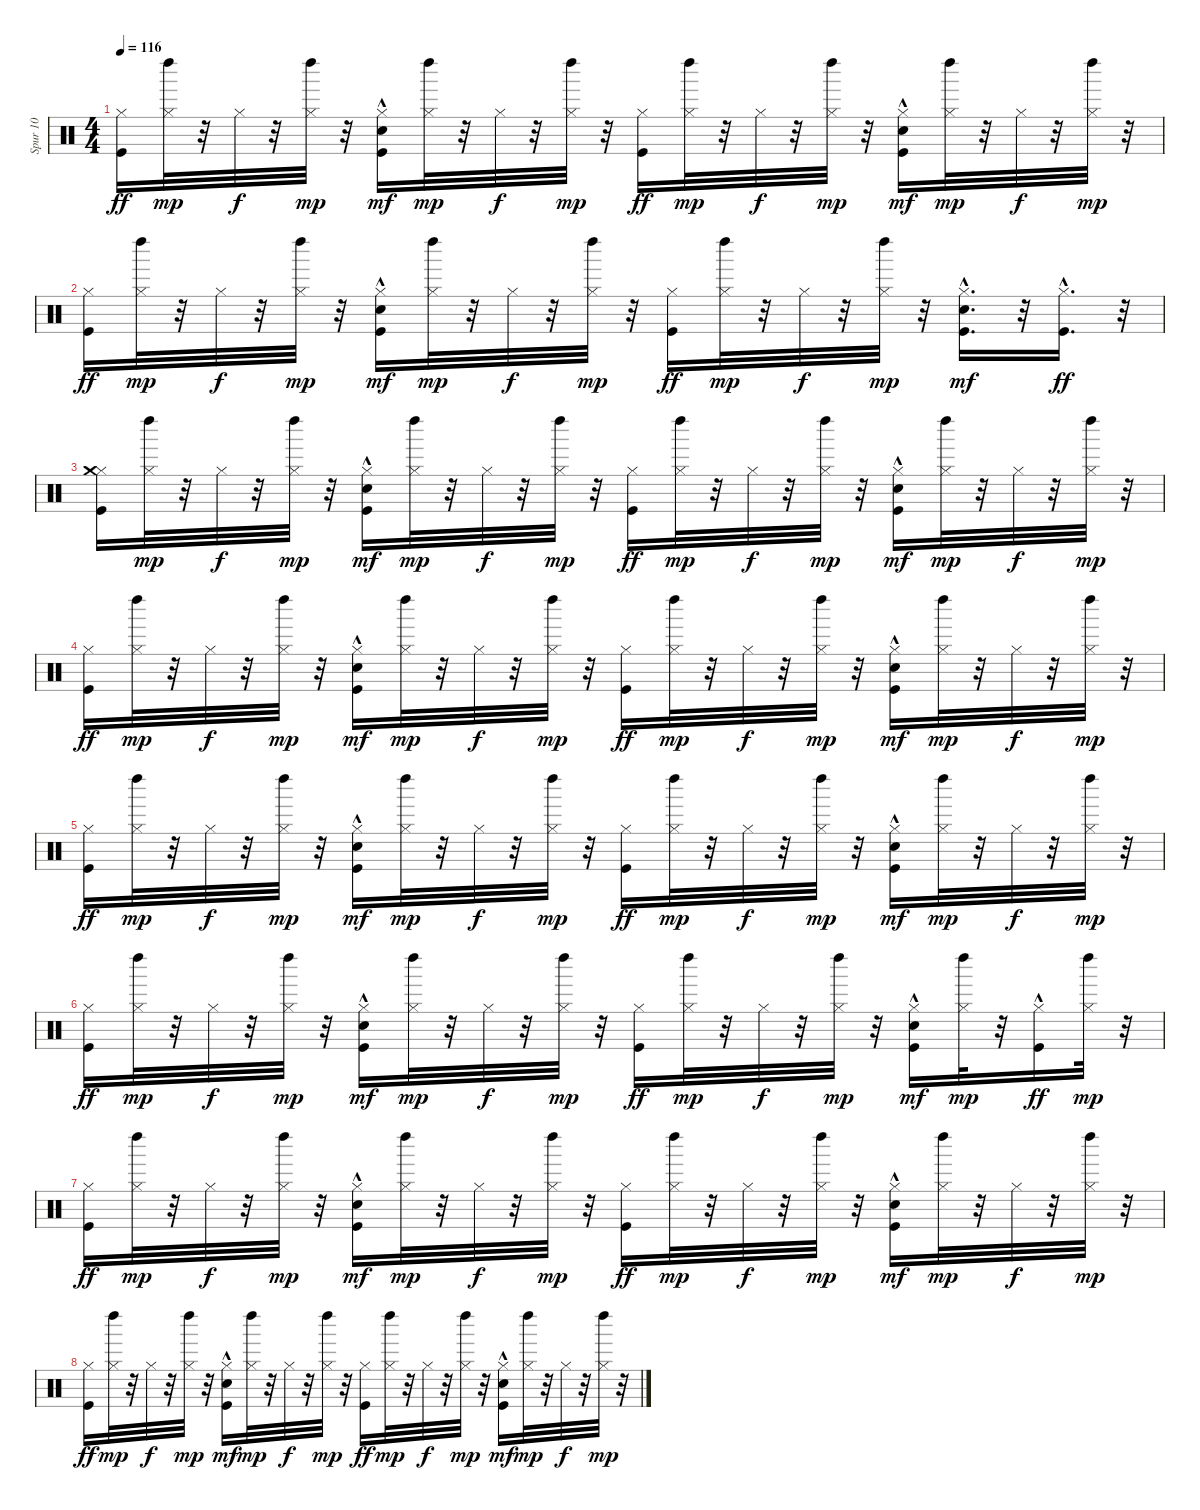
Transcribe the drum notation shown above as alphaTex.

\track ("Spur 10" "Spur 10") {instrument percussion}
\staff {score}
\articulation defaults
\ts (4 4)
\tempo 116
\clef neutral
\ks c
("Kick (hit)" "Hi-Hat (closed)").16{dy ff} ("Left Maraca (hit)" "Hi-Hat (closed)").32{dy mp} r.32 "Hi-Hat (closed)".32{dy f} r.32 ("Left Maraca (hit)" "Hi-Hat (closed)").32{dy mp} r.32 ("Kick (hit)"{hac} "Snare (hit) 2"{hac} "Hi-Hat (closed)").16{dy mf} ("Left Maraca (hit)" "Hi-Hat (closed)").32{dy mp} r.32 "Hi-Hat (closed)".32{dy f} r.32 ("Left Maraca (hit)" "Hi-Hat (closed)").32{dy mp} r.32 ("Kick (hit)" "Hi-Hat (closed)").16{dy ff} ("Left Maraca (hit)" "Hi-Hat (closed)").32{dy mp} r.32 "Hi-Hat (closed)".32{dy f} r.32 ("Left Maraca (hit)" "Hi-Hat (closed)").32{dy mp} r.32 ("Kick (hit)"{hac} "Snare (hit) 2"{hac} "Hi-Hat (closed)").16{dy mf} ("Left Maraca (hit)" "Hi-Hat (closed)").32{dy mp} r.32 "Hi-Hat (closed)".32{dy f} r.32 ("Left Maraca (hit)" "Hi-Hat (closed)").32{dy mp} r.32 |
("Kick (hit)" "Hi-Hat (closed)").16{dy ff} ("Left Maraca (hit)" "Hi-Hat (closed)").32{dy mp} r.32 "Hi-Hat (closed)".32{dy f} r.32 ("Left Maraca (hit)" "Hi-Hat (closed)").32{dy mp} r.32 ("Kick (hit)"{hac} "Snare (hit) 2"{hac} "Hi-Hat (closed)").16{dy mf} ("Left Maraca (hit)" "Hi-Hat (closed)").32{dy mp} r.32 "Hi-Hat (closed)".32{dy f} r.32 ("Left Maraca (hit)" "Hi-Hat (closed)").32{dy mp} r.32 ("Kick (hit)" "Hi-Hat (closed)").16{dy ff} ("Left Maraca (hit)" "Hi-Hat (closed)").32{dy mp} r.32 "Hi-Hat (closed)".32{dy f} r.32 ("Left Maraca (hit)" "Hi-Hat (closed)").32{dy mp} r.32 ("Kick (hit)"{hac} "Snare (hit) 2"{hac} "Hi-Hat (closed)").16{d dy mf} r.32 ("Kick (hit)"{hac} "Hi-Hat (closed)").16{d dy ff} r.32 |
("Kick (hit)" "Hi-Hat (closed)" "Crash medium (hit)").16 ("Left Maraca (hit)" "Hi-Hat (closed)").32{dy mp} r.32 "Hi-Hat (closed)".32{dy f} r.32 ("Left Maraca (hit)" "Hi-Hat (closed)").32{dy mp} r.32 ("Kick (hit)"{hac} "Snare (hit) 2"{hac} "Hi-Hat (closed)").16{dy mf} ("Left Maraca (hit)" "Hi-Hat (closed)").32{dy mp} r.32 "Hi-Hat (closed)".32{dy f} r.32 ("Left Maraca (hit)" "Hi-Hat (closed)").32{dy mp} r.32 ("Kick (hit)" "Hi-Hat (closed)").16{dy ff} ("Left Maraca (hit)" "Hi-Hat (closed)").32{dy mp} r.32 "Hi-Hat (closed)".32{dy f} r.32 ("Left Maraca (hit)" "Hi-Hat (closed)").32{dy mp} r.32 ("Kick (hit)"{hac} "Snare (hit) 2"{hac} "Hi-Hat (closed)").16{dy mf} ("Left Maraca (hit)" "Hi-Hat (closed)").32{dy mp} r.32 "Hi-Hat (closed)".32{dy f} r.32 ("Left Maraca (hit)" "Hi-Hat (closed)").32{dy mp} r.32 |
("Kick (hit)" "Hi-Hat (closed)").16{dy ff} ("Left Maraca (hit)" "Hi-Hat (closed)").32{dy mp} r.32 "Hi-Hat (closed)".32{dy f} r.32 ("Left Maraca (hit)" "Hi-Hat (closed)").32{dy mp} r.32 ("Kick (hit)"{hac} "Snare (hit) 2"{hac} "Hi-Hat (closed)").16{dy mf} ("Left Maraca (hit)" "Hi-Hat (closed)").32{dy mp} r.32 "Hi-Hat (closed)".32{dy f} r.32 ("Left Maraca (hit)" "Hi-Hat (closed)").32{dy mp} r.32 ("Kick (hit)" "Hi-Hat (closed)").16{dy ff} ("Left Maraca (hit)" "Hi-Hat (closed)").32{dy mp} r.32 "Hi-Hat (closed)".32{dy f} r.32 ("Left Maraca (hit)" "Hi-Hat (closed)").32{dy mp} r.32 ("Kick (hit)"{hac} "Snare (hit) 2"{hac} "Hi-Hat (closed)").16{dy mf} ("Left Maraca (hit)" "Hi-Hat (closed)").32{dy mp} r.32 "Hi-Hat (closed)".32{dy f} r.32 ("Left Maraca (hit)" "Hi-Hat (closed)").32{dy mp} r.32 |
("Kick (hit)" "Hi-Hat (closed)").16{dy ff} ("Left Maraca (hit)" "Hi-Hat (closed)").32{dy mp} r.32 "Hi-Hat (closed)".32{dy f} r.32 ("Left Maraca (hit)" "Hi-Hat (closed)").32{dy mp} r.32 ("Kick (hit)"{hac} "Snare (hit) 2"{hac} "Hi-Hat (closed)").16{dy mf} ("Left Maraca (hit)" "Hi-Hat (closed)").32{dy mp} r.32 "Hi-Hat (closed)".32{dy f} r.32 ("Left Maraca (hit)" "Hi-Hat (closed)").32{dy mp} r.32 ("Kick (hit)" "Hi-Hat (closed)").16{dy ff} ("Left Maraca (hit)" "Hi-Hat (closed)").32{dy mp} r.32 "Hi-Hat (closed)".32{dy f} r.32 ("Left Maraca (hit)" "Hi-Hat (closed)").32{dy mp} r.32 ("Kick (hit)"{hac} "Snare (hit) 2"{hac} "Hi-Hat (closed)").16{dy mf} ("Left Maraca (hit)" "Hi-Hat (closed)").32{dy mp} r.32 "Hi-Hat (closed)".32{dy f} r.32 ("Left Maraca (hit)" "Hi-Hat (closed)").32{dy mp} r.32 |
("Kick (hit)" "Hi-Hat (closed)").16{dy ff} ("Left Maraca (hit)" "Hi-Hat (closed)").32{dy mp} r.32 "Hi-Hat (closed)".32{dy f} r.32 ("Left Maraca (hit)" "Hi-Hat (closed)").32{dy mp} r.32 ("Kick (hit)"{hac} "Snare (hit) 2"{hac} "Hi-Hat (closed)").16{dy mf} ("Left Maraca (hit)" "Hi-Hat (closed)").32{dy mp} r.32 "Hi-Hat (closed)".32{dy f} r.32 ("Left Maraca (hit)" "Hi-Hat (closed)").32{dy mp} r.32 ("Kick (hit)" "Hi-Hat (closed)").16{dy ff} ("Left Maraca (hit)" "Hi-Hat (closed)").32{dy mp} r.32 "Hi-Hat (closed)".32{dy f} r.32 ("Left Maraca (hit)" "Hi-Hat (closed)").32{dy mp} r.32 ("Kick (hit)"{hac} "Snare (hit) 2"{hac} "Hi-Hat (closed)").16{dy mf} ("Left Maraca (hit)" "Hi-Hat (closed)").32{dy mp} r.32 ("Kick (hit)"{hac} "Hi-Hat (closed)").16{dy ff} ("Left Maraca (hit)" "Hi-Hat (closed)").32{dy mp} r.32 |
("Kick (hit)" "Hi-Hat (closed)").16{dy ff} ("Left Maraca (hit)" "Hi-Hat (closed)").32{dy mp} r.32 "Hi-Hat (closed)".32{dy f} r.32 ("Left Maraca (hit)" "Hi-Hat (closed)").32{dy mp} r.32 ("Kick (hit)"{hac} "Snare (hit) 2"{hac} "Hi-Hat (closed)").16{dy mf} ("Left Maraca (hit)" "Hi-Hat (closed)").32{dy mp} r.32 "Hi-Hat (closed)".32{dy f} r.32 ("Left Maraca (hit)" "Hi-Hat (closed)").32{dy mp} r.32 ("Kick (hit)" "Hi-Hat (closed)").16{dy ff} ("Left Maraca (hit)" "Hi-Hat (closed)").32{dy mp} r.32 "Hi-Hat (closed)".32{dy f} r.32 ("Left Maraca (hit)" "Hi-Hat (closed)").32{dy mp} r.32 ("Kick (hit)"{hac} "Snare (hit) 2"{hac} "Hi-Hat (closed)").16{dy mf} ("Left Maraca (hit)" "Hi-Hat (closed)").32{dy mp} r.32 "Hi-Hat (closed)".32{dy f} r.32 ("Left Maraca (hit)" "Hi-Hat (closed)").32{dy mp} r.32 |
("Kick (hit)" "Hi-Hat (closed)").16{dy ff} ("Left Maraca (hit)" "Hi-Hat (closed)").32{dy mp} r.32 "Hi-Hat (closed)".32{dy f} r.32 ("Left Maraca (hit)" "Hi-Hat (closed)").32{dy mp} r.32 ("Kick (hit)"{hac} "Snare (hit) 2"{hac} "Hi-Hat (closed)").16{dy mf} ("Left Maraca (hit)" "Hi-Hat (closed)").32{dy mp} r.32 "Hi-Hat (closed)".32{dy f} r.32 ("Left Maraca (hit)" "Hi-Hat (closed)").32{dy mp} r.32 ("Kick (hit)" "Hi-Hat (closed)").16{dy ff} ("Left Maraca (hit)" "Hi-Hat (closed)").32{dy mp} r.32 "Hi-Hat (closed)".32{dy f} r.32 ("Left Maraca (hit)" "Hi-Hat (closed)").32{dy mp} r.32 ("Kick (hit)"{hac} "Snare (hit) 2"{hac} "Hi-Hat (closed)").16{dy mf} ("Left Maraca (hit)" "Hi-Hat (closed)").32{dy mp} r.32 "Hi-Hat (closed)".32{dy f} r.32 ("Left Maraca (hit)" "Hi-Hat (closed)").32{dy mp} r.32
